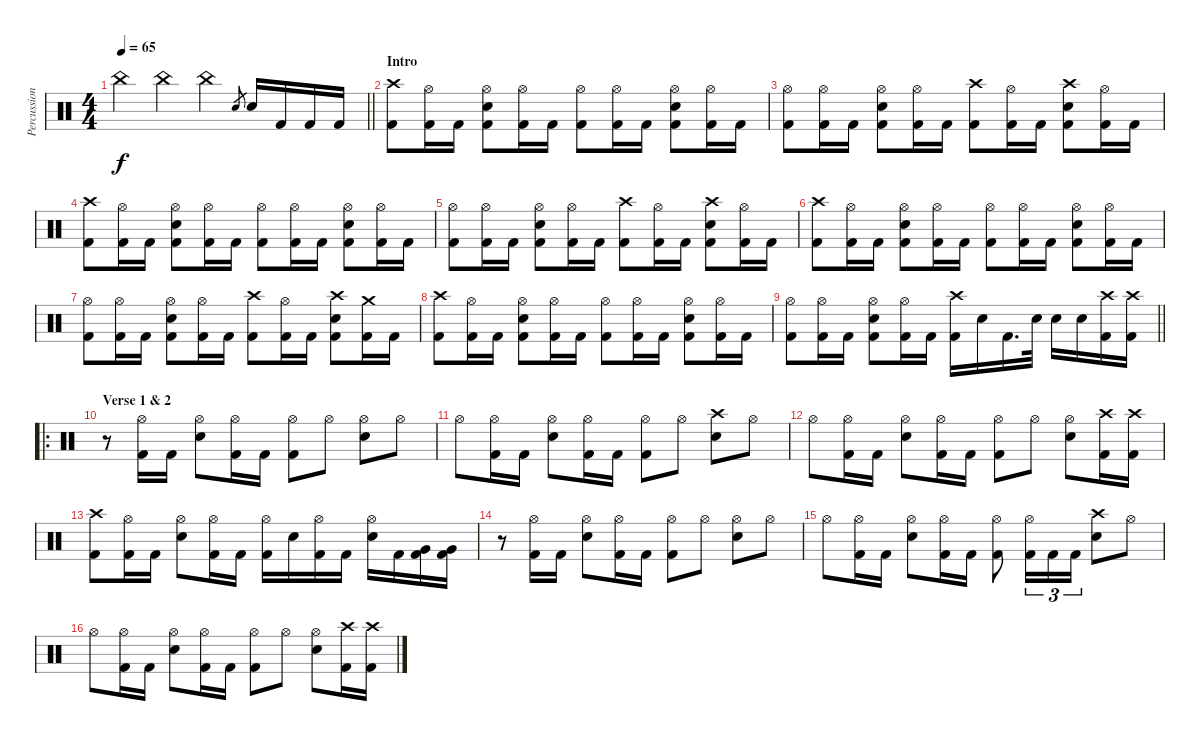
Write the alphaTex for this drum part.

\track ("Percussion" "Percussion") {instrument percussion}
\staff {score}
\articulation defaults
\ts (4 4)
\tempo 65
\clef neutral
\barLineRight lightlight
\ks c "China (hit)".4{dy f} "China (hit)".4 "China (hit)".4 "Snare (hit) 2".8{gr} "Snare (hit) 2".16 "Kick (hit) 2".16 "Kick (hit) 2".16 "Kick (hit) 2".16
|
\section ("" "Intro")
("Crash high (hit)" "Kick (hit) 2").8 ("Hi-Hat (open)" "Kick (hit) 2").16 "Kick (hit) 2".16 ("Hi-Hat (open)" "Snare (hit) 2" "Kick (hit) 2").8 ("Hi-Hat (open)" "Kick (hit) 2").16 "Kick (hit) 2".16 ("Hi-Hat (open)" "Kick (hit) 2").8 ("Hi-Hat (open)" "Kick (hit) 2").16 "Kick (hit) 2".16 ("Hi-Hat (open)" "Snare (hit) 2" "Kick (hit) 2").8 ("Hi-Hat (open)" "Kick (hit) 2").16 "Kick (hit) 2".16 |
("Hi-Hat (open)" "Kick (hit) 2").8 ("Hi-Hat (open)" "Kick (hit) 2").16 "Kick (hit) 2".16 ("Hi-Hat (open)" "Snare (hit) 2" "Kick (hit) 2").8 ("Hi-Hat (open)" "Kick (hit) 2").16 "Kick (hit) 2".16 ("Crash high (hit)" "Kick (hit) 2").8 ("Hi-Hat (open)" "Kick (hit) 2").16 "Kick (hit) 2".16 ("Crash high (hit)" "Snare (hit) 2" "Kick (hit) 2").8 ("Hi-Hat (open)" "Kick (hit) 2").16 "Kick (hit) 2".16 |
("Crash high (hit)" "Kick (hit) 2").8 ("Hi-Hat (open)" "Kick (hit) 2").16 "Kick (hit) 2".16 ("Hi-Hat (open)" "Snare (hit) 2" "Kick (hit) 2").8 ("Hi-Hat (open)" "Kick (hit) 2").16 "Kick (hit) 2".16 ("Hi-Hat (open)" "Kick (hit) 2").8 ("Hi-Hat (open)" "Kick (hit) 2").16 "Kick (hit) 2".16 ("Hi-Hat (open)" "Snare (hit) 2" "Kick (hit) 2").8 ("Hi-Hat (open)" "Kick (hit) 2").16 "Kick (hit) 2".16 |
("Hi-Hat (open)" "Kick (hit) 2").8 ("Hi-Hat (open)" "Kick (hit) 2").16 "Kick (hit) 2".16 ("Hi-Hat (open)" "Snare (hit) 2" "Kick (hit) 2").8 ("Hi-Hat (open)" "Kick (hit) 2").16 "Kick (hit) 2".16 ("Crash high (hit)" "Kick (hit) 2").8 ("Hi-Hat (open)" "Kick (hit) 2").16 "Kick (hit) 2".16 ("Crash high (hit)" "Snare (hit) 2" "Kick (hit) 2").8 ("Hi-Hat (open)" "Kick (hit) 2").16 "Kick (hit) 2".16 |
("Crash high (hit)" "Kick (hit) 2").8 ("Hi-Hat (open)" "Kick (hit) 2").16 "Kick (hit) 2".16 ("Hi-Hat (open)" "Snare (hit) 2" "Kick (hit) 2").8 ("Hi-Hat (open)" "Kick (hit) 2").16 "Kick (hit) 2".16 ("Hi-Hat (open)" "Kick (hit) 2").8 ("Hi-Hat (open)" "Kick (hit) 2").16 "Kick (hit) 2".16 ("Hi-Hat (open)" "Snare (hit) 2" "Kick (hit) 2").8 ("Hi-Hat (open)" "Kick (hit) 2").16 "Kick (hit) 2".16 |
("Hi-Hat (open)" "Kick (hit) 2").8 ("Hi-Hat (open)" "Kick (hit) 2").16 "Kick (hit) 2".16 ("Hi-Hat (open)" "Snare (hit) 2" "Kick (hit) 2").8 ("Hi-Hat (open)" "Kick (hit) 2").16 "Kick (hit) 2".16 ("Crash high (hit)" "Kick (hit) 2").8 ("Hi-Hat (open)" "Kick (hit) 2").16 "Kick (hit) 2".16 ("Crash high (hit)" "Snare (hit) 2" "Kick (hit) 2").8 ("Crash medium (hit)" "Kick (hit) 2").16 "Kick (hit) 2".16 |
("Crash high (hit)" "Kick (hit) 2").8 ("Hi-Hat (open)" "Kick (hit) 2").16 "Kick (hit) 2".16 ("Hi-Hat (open)" "Snare (hit) 2" "Kick (hit) 2").8 ("Hi-Hat (open)" "Kick (hit) 2").16 "Kick (hit) 2".16 ("Hi-Hat (open)" "Kick (hit) 2").8 ("Hi-Hat (open)" "Kick (hit) 2").16 "Kick (hit) 2".16 ("Hi-Hat (open)" "Snare (hit) 2" "Kick (hit) 2").8 ("Hi-Hat (open)" "Kick (hit) 2").16 "Kick (hit) 2".16 |
\barLineRight lightlight
("Hi-Hat (open)" "Kick (hit) 2").8 ("Hi-Hat (open)" "Kick (hit) 2").16 "Kick (hit) 2".16 ("Hi-Hat (open)" "Snare (hit) 2" "Kick (hit) 2").8 ("Hi-Hat (open)" "Kick (hit) 2").16 "Kick (hit) 2".16 ("Crash high (hit)" "Kick (hit) 2").16 "Snare (hit) 2".16 "Kick (hit) 2".16{d} "Snare (hit) 2".32 "Snare (hit) 2".16 "Snare (hit) 2".16 ("Crash high (hit)" "Kick (hit) 2").16 ("Crash high (hit)" "Kick (hit) 2").16 |
\ro
\section ("" "Verse 1 & 2")
r.8 ("Hi-Hat (open)" "Kick (hit) 2").16 "Kick (hit) 2".16 ("Hi-Hat (open)" "Snare (hit) 2").8 ("Hi-Hat (open)" "Kick (hit) 2").16 "Kick (hit) 2".16 ("Hi-Hat (open)" "Kick (hit) 2").8 "Hi-Hat (open)".8 ("Hi-Hat (open)" "Snare (hit) 2").8 "Hi-Hat (open)".8 |
"Hi-Hat (open)".8 ("Hi-Hat (open)" "Kick (hit) 2").16 "Kick (hit) 2".16 ("Hi-Hat (open)" "Snare (hit) 2").8 ("Hi-Hat (open)" "Kick (hit) 2").16 "Kick (hit) 2".16 ("Hi-Hat (open)" "Kick (hit) 2").8 "Hi-Hat (open)".8 ("Crash high (hit)" "Snare (hit) 2").8 "Hi-Hat (open)".8 |
"Hi-Hat (open)".8 ("Hi-Hat (open)" "Kick (hit) 2").16 "Kick (hit) 2".16 ("Hi-Hat (open)" "Snare (hit) 2").8 ("Hi-Hat (open)" "Kick (hit) 2").16 "Kick (hit) 2".16 ("Hi-Hat (open)" "Kick (hit) 2").8 "Hi-Hat (open)".8 ("Hi-Hat (open)" "Snare (hit) 2").8 ("Crash high (hit)" "Kick (hit) 2").16 ("Crash high (hit)" "Kick (hit) 2").16 |
("Crash high (hit)" "Kick (hit) 2").8 ("Hi-Hat (open)" "Kick (hit) 2").16 "Kick (hit) 2".16 ("Hi-Hat (open)" "Snare (hit) 2").8 ("Hi-Hat (open)" "Kick (hit) 2").16 "Kick (hit) 2".16 ("Hi-Hat (open)" "Kick (hit) 2").16 "Snare (hit) 2".16 ("Hi-Hat (open)" "Kick (hit) 2").16 "Kick (hit) 2".16 ("Hi-Hat (open)" "Snare (hit) 2").16 "Kick (hit) 2".16 ("Very Low Tom (hit)" "Kick (hit) 2").16 ("Very Low Tom (hit)" "Kick (hit) 2").16 |
r.8 ("Hi-Hat (open)" "Kick (hit) 2").16 "Kick (hit) 2".16 ("Hi-Hat (open)" "Snare (hit) 2").8 ("Hi-Hat (open)" "Kick (hit) 2").16 "Kick (hit) 2".16 ("Hi-Hat (open)" "Kick (hit) 2").8 "Hi-Hat (open)".8 ("Hi-Hat (open)" "Snare (hit) 2").8 "Hi-Hat (open)".8 |
"Hi-Hat (open)".8 ("Hi-Hat (open)" "Kick (hit) 2").16 "Kick (hit) 2".16 ("Hi-Hat (open)" "Snare (hit) 2").8 ("Hi-Hat (open)" "Kick (hit) 2").16 "Kick (hit) 2".16 ("Hi-Hat (open)" "Kick (hit) 2").8 ("Hi-Hat (open)" "Kick (hit) 2").16{tu (3 2)} "Kick (hit) 2".16{tu (3 2)} "Kick (hit) 2".16{tu (3 2)} ("Crash high (hit)" "Snare (hit) 2").8 "Hi-Hat (open)".8 |
"Hi-Hat (open)".8 ("Hi-Hat (open)" "Kick (hit) 2").16 "Kick (hit) 2".16 ("Hi-Hat (open)" "Snare (hit) 2").8 ("Hi-Hat (open)" "Kick (hit) 2").16 "Kick (hit) 2".16 ("Hi-Hat (open)" "Kick (hit) 2").8 "Hi-Hat (open)".8 ("Hi-Hat (open)" "Snare (hit) 2").8 ("Crash high (hit)" "Kick (hit) 2").16 ("Crash high (hit)" "Kick (hit) 2").16
